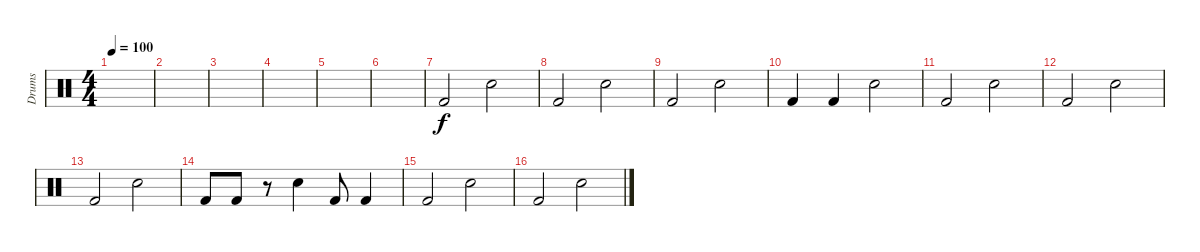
\track ("Drums" "Drums") {instrument percussion}
\staff {score}
\articulation defaults
\ts (4 4)
\tempo 100
\clef neutral
\ks c
|
|
|
|
|
|
"Kick (hit) 2".2 "Snare (hit) 2".2 |
"Kick (hit) 2".2 "Snare (hit) 2".2 |
"Kick (hit) 2".2 "Snare (hit) 2".2 |
"Kick (hit) 2".4 "Kick (hit) 2".4 "Snare (hit) 2".2 |
"Kick (hit) 2".2 "Snare (hit) 2".2 |
"Kick (hit) 2".2 "Snare (hit) 2".2 |
"Kick (hit) 2".2 "Snare (hit) 2".2 |
"Kick (hit) 2".8 "Kick (hit) 2".8 r.8 "Snare (hit) 2".4 "Kick (hit) 2".8 "Kick (hit) 2".4 |
"Kick (hit) 2".2 "Snare (hit) 2".2 |
"Kick (hit) 2".2 "Snare (hit) 2".2
